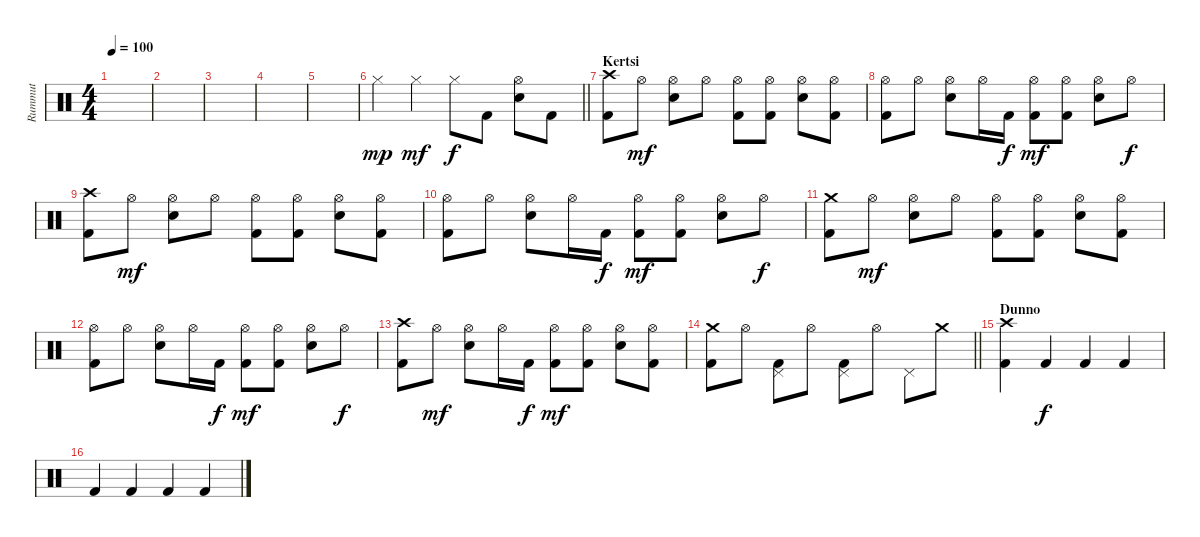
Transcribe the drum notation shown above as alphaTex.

\track ("Rummut" "Rummut") {instrument percussion}
\staff {score}
\articulation defaults
\ts (4 4)
\tempo 100
\clef neutral
\ks c
|
|
|
|
|
\barLineRight lightlight "Hi-Hat (closed)".4{dy mp} "Hi-Hat (closed)".4{dy mf} "Hi-Hat (closed)".8{dy f} "Kick (hit) 2".8
("Hi-Hat (open)" "Snare (hit) 2").8 "Kick (hit) 2".8 |
\section ("" "Kertsi")
("Crash high (hit)" "Kick (hit) 2").8 "Hi-Hat (open)".8{dy mf} ("Hi-Hat (open)" "Snare (hit) 2").8 "Hi-Hat (open)".8 ("Hi-Hat (open)" "Kick (hit) 2").8 ("Hi-Hat (open)" "Kick (hit) 2").8 ("Hi-Hat (open)" "Snare (hit) 2").8 ("Hi-Hat (open)" "Kick (hit) 2").8 |
("Hi-Hat (open)" "Kick (hit) 2").8 "Hi-Hat (open)".8 ("Hi-Hat (open)" "Snare (hit) 2").8 "Hi-Hat (open)".16 "Kick (hit) 2".16{dy f} ("Hi-Hat (open)" "Kick (hit) 2").8{dy mf} ("Hi-Hat (open)" "Kick (hit) 2").8 ("Hi-Hat (open)" "Snare (hit) 2").8 "Hi-Hat (open)".8{dy f} |
("Crash high (hit)" "Kick (hit) 2").8 "Hi-Hat (open)".8{dy mf} ("Hi-Hat (open)" "Snare (hit) 2").8 "Hi-Hat (open)".8 ("Hi-Hat (open)" "Kick (hit) 2").8 ("Hi-Hat (open)" "Kick (hit) 2").8 ("Hi-Hat (open)" "Snare (hit) 2").8 ("Hi-Hat (open)" "Kick (hit) 2").8 |
("Hi-Hat (open)" "Kick (hit) 2").8 "Hi-Hat (open)".8 ("Hi-Hat (open)" "Snare (hit) 2").8 "Hi-Hat (open)".16 "Kick (hit) 2".16{dy f} ("Hi-Hat (open)" "Kick (hit) 2").8{dy mf} ("Hi-Hat (open)" "Kick (hit) 2").8 ("Hi-Hat (open)" "Snare (hit) 2").8 "Hi-Hat (open)".8{dy f} |
("Crash medium (hit)" "Kick (hit) 2").8 "Hi-Hat (open)".8{dy mf} ("Hi-Hat (open)" "Snare (hit) 2").8 "Hi-Hat (open)".8 ("Hi-Hat (open)" "Kick (hit) 2").8 ("Hi-Hat (open)" "Kick (hit) 2").8 ("Hi-Hat (open)" "Snare (hit) 2").8 ("Hi-Hat (open)" "Kick (hit) 2").8 |
("Hi-Hat (open)" "Kick (hit) 2").8 "Hi-Hat (open)".8 ("Hi-Hat (open)" "Snare (hit) 2").8 "Hi-Hat (open)".16 "Kick (hit) 2".16{dy f} ("Hi-Hat (open)" "Kick (hit) 2").8{dy mf} ("Hi-Hat (open)" "Kick (hit) 2").8 ("Hi-Hat (open)" "Snare (hit) 2").8 "Hi-Hat (open)".8{dy f} |
("Crash high (hit)" "Kick (hit) 2").8 "Hi-Hat (open)".8{dy mf} ("Hi-Hat (open)" "Snare (hit) 2").8 "Hi-Hat (open)".16 "Kick (hit) 2".16{dy f} ("Hi-Hat (open)" "Kick (hit) 2").8{dy mf} ("Hi-Hat (open)" "Kick (hit) 2").8 ("Hi-Hat (open)" "Snare (hit) 2").8 ("Hi-Hat (open)" "Kick (hit) 2").8 |
\barLineRight lightlight
("Crash medium (hit)" "Kick (hit) 2").8 "Hi-Hat (open)".8 ("Pedal Hi-Hat (hit)" "Kick (hit) 2").8 "Hi-Hat (open)".8 ("Pedal Hi-Hat (hit)" "Kick (hit) 2").8 "Hi-Hat (open)".8 "Pedal Hi-Hat (hit)".8 "Crash medium (hit)".8 |
\section ("" "Dunno")
("Crash high (hit)" "Kick (hit) 2").4 "Kick (hit) 2".4{dy f} "Kick (hit) 2".4 "Kick (hit) 2".4 |
"Kick (hit) 2".4 "Kick (hit) 2".4 "Kick (hit) 2".4 "Kick (hit) 2".4
